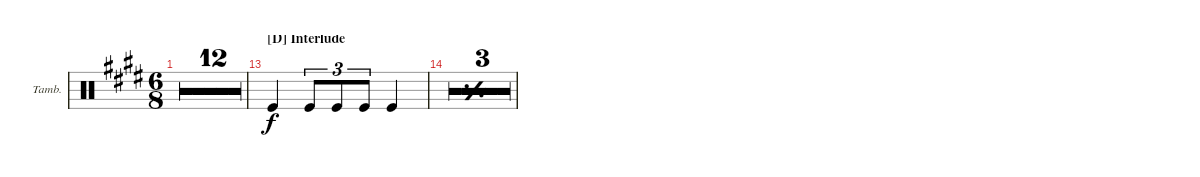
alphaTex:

\defaultSystemsLayout 4
\bracketExtendMode groupsimilarinstruments
\firstSystemTrackNameOrientation horizontal
\otherSystemsTrackNameOrientation horizontal
\track ("Tambourine" "Tamb.") {multiBarRest instrument percussion}
\staff {score}
\articulation defaults
\ts (6 8)
\tempo 162
\clef neutral
\ks e
|
|
|
\ts (3 4)
|
\ts (6 8)
|
|
|
\ts (3 4)
|
\ts (6 8)
|
|
|
\ts (3 4)
|
\section ("D" "Interlude")
"Kick (hit)".4 "Kick (hit)".8{tu (3 2)} "Kick (hit)".8{tu (3 2)} "Kick (hit)".8{tu (3 2)} "Kick (hit)".4 |
\tempo 162
\simile simple
|
\simile firstofdouble
|
\simile secondofdouble
